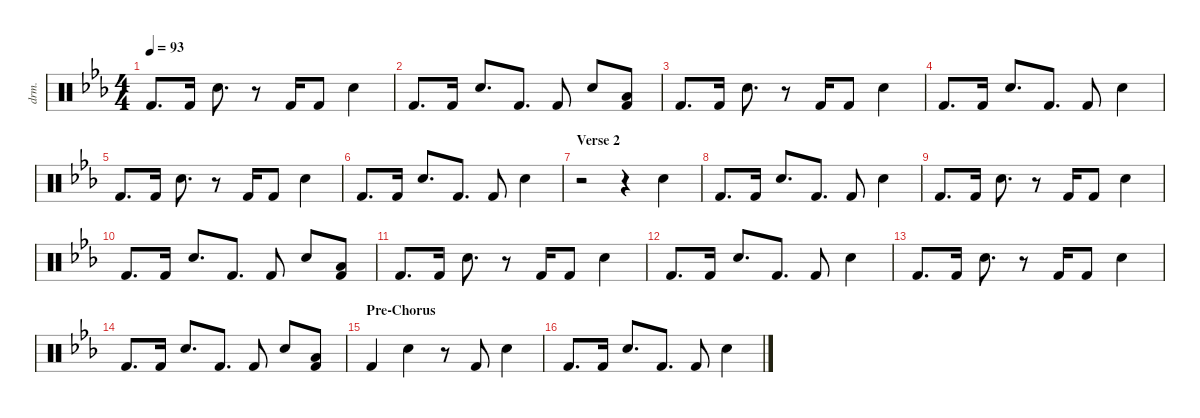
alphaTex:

\defaultSystemsLayout 4
\hideDynamics
\bracketExtendMode nobrackets
\otherSystemsTrackNameOrientation horizontal
\track ("Drumkit" "drm.") {instrument percussion}
\staff {score}
\articulation defaults
\ts (4 4)
\tempo 93
\clef neutral
\ks cminor "Kick (hit) 2"{acc forcenatural}.8{d dy mf} "Kick (hit) 2"{acc forcenatural}.16 "Snare (hit) 2"{acc forcenatural}.8{d}
r.8 "Kick (hit) 2"{acc forcenatural}.16 "Kick (hit) 2"{acc forcenatural}.8 "Snare (hit) 2"{acc forcenatural}.4 |
"Kick (hit) 2"{acc forcenatural}.8{d} "Kick (hit) 2"{acc forcenatural}.16 "Snare (hit) 2"{acc forcenatural}.8{d} "Kick (hit) 2"{acc forcenatural}.8{d} "Kick (hit) 2"{acc forcenatural}.8 "Snare (hit) 2"{acc forcenatural}.8 ("Low Tom (hit)"{acc forcenatural} "Kick (hit) 2"{acc forcenatural}).8 |
"Kick (hit) 2"{acc forcenatural}.8{d} "Kick (hit) 2"{acc forcenatural}.16 "Snare (hit) 2"{acc forcenatural}.8{d} r.8 "Kick (hit) 2"{acc forcenatural}.16 "Kick (hit) 2"{acc forcenatural}.8 "Snare (hit) 2"{acc forcenatural}.4 |
"Kick (hit) 2"{acc forcenatural}.8{d} "Kick (hit) 2"{acc forcenatural}.16 "Snare (hit) 2"{acc forcenatural}.8{d} "Kick (hit) 2"{acc forcenatural}.8{d} "Kick (hit) 2"{acc forcenatural}.8 "Snare (hit) 2"{acc forcenatural}.4 |
"Kick (hit) 2"{acc forcenatural}.8{d} "Kick (hit) 2"{acc forcenatural}.16 "Snare (hit) 2"{acc forcenatural}.8{d} r.8 "Kick (hit) 2"{acc forcenatural}.16 "Kick (hit) 2"{acc forcenatural}.8 "Snare (hit) 2"{acc forcenatural}.4 |
"Kick (hit) 2"{acc forcenatural}.8{d} "Kick (hit) 2"{acc forcenatural}.16 "Snare (hit) 2"{acc forcenatural}.8{d} "Kick (hit) 2"{acc forcenatural}.8{d} "Kick (hit) 2"{acc forcenatural}.8 "Snare (hit) 2"{acc forcenatural}.4 |
\section ("" "Verse 2")
r.2 r.4 "Snare (hit) 2"{acc forcenatural}.4 |
"Kick (hit) 2"{acc forcenatural}.8{d} "Kick (hit) 2"{acc forcenatural}.16 "Snare (hit) 2"{acc forcenatural}.8{d} "Kick (hit) 2"{acc forcenatural}.8{d} "Kick (hit) 2"{acc forcenatural}.8 "Snare (hit) 2"{acc forcenatural}.4 |
"Kick (hit) 2"{acc forcenatural}.8{d} "Kick (hit) 2"{acc forcenatural}.16 "Snare (hit) 2"{acc forcenatural}.8{d} r.8 "Kick (hit) 2"{acc forcenatural}.16 "Kick (hit) 2"{acc forcenatural}.8 "Snare (hit) 2"{acc forcenatural}.4 |
"Kick (hit) 2"{acc forcenatural}.8{d} "Kick (hit) 2"{acc forcenatural}.16 "Snare (hit) 2"{acc forcenatural}.8{d} "Kick (hit) 2"{acc forcenatural}.8{d} "Kick (hit) 2"{acc forcenatural}.8 "Snare (hit) 2"{acc forcenatural}.8 ("Low Tom (hit)"{acc forcenatural} "Kick (hit) 2"{acc forcenatural}).8 |
"Kick (hit) 2"{acc forcenatural}.8{d} "Kick (hit) 2"{acc forcenatural}.16 "Snare (hit) 2"{acc forcenatural}.8{d} r.8 "Kick (hit) 2"{acc forcenatural}.16 "Kick (hit) 2"{acc forcenatural}.8 "Snare (hit) 2"{acc forcenatural}.4 |
"Kick (hit) 2"{acc forcenatural}.8{d} "Kick (hit) 2"{acc forcenatural}.16 "Snare (hit) 2"{acc forcenatural}.8{d} "Kick (hit) 2"{acc forcenatural}.8{d} "Kick (hit) 2"{acc forcenatural}.8 "Snare (hit) 2"{acc forcenatural}.4 |
"Kick (hit) 2"{acc forcenatural}.8{d} "Kick (hit) 2"{acc forcenatural}.16 "Snare (hit) 2"{acc forcenatural}.8{d} r.8 "Kick (hit) 2"{acc forcenatural}.16 "Kick (hit) 2"{acc forcenatural}.8 "Snare (hit) 2"{acc forcenatural}.4 |
"Kick (hit) 2"{acc forcenatural}.8{d} "Kick (hit) 2"{acc forcenatural}.16 "Snare (hit) 2"{acc forcenatural}.8{d} "Kick (hit) 2"{acc forcenatural}.8{d} "Kick (hit) 2"{acc forcenatural}.8 "Snare (hit) 2"{acc forcenatural}.8 ("Low Tom (hit)"{acc forcenatural} "Kick (hit) 2"{acc forcenatural}).8 |
\section ("" "Pre-Chorus")
"Kick (hit) 2"{acc forcenatural}.4 "Snare (hit) 2"{acc forcenatural}.4 r.8 "Kick (hit) 2"{acc forcenatural}.8 "Snare (hit) 2"{acc forcenatural}.4 |
"Kick (hit) 2"{acc forcenatural}.8{d} "Kick (hit) 2"{acc forcenatural}.16 "Snare (hit) 2"{acc forcenatural}.8{d} "Kick (hit) 2"{acc forcenatural}.8{d} "Kick (hit) 2"{acc forcenatural}.8 "Snare (hit) 2"{acc forcenatural}.4
